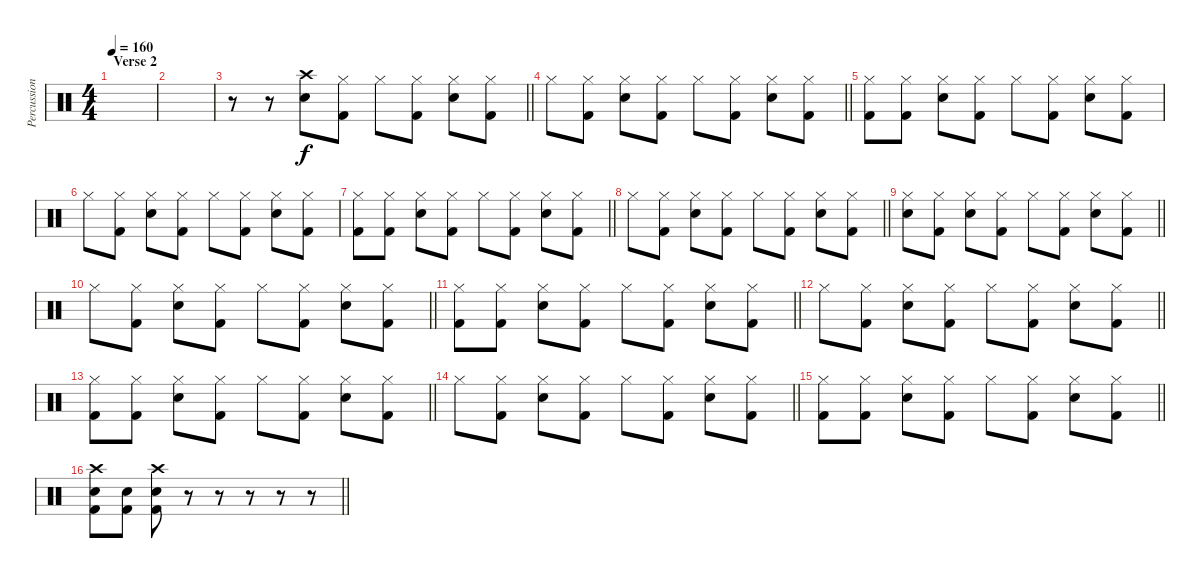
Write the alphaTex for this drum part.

\track ("Percussion" "Percussion") {instrument percussion}
\staff {score}
\articulation defaults
\ts (4 4)
\section ("" "Verse 2")
\tempo 160
\clef neutral
\ks c
|
|
\barLineRight lightlight
r.8 r.8 ("Crash high (hit)" "Electric Snare (hit)").8 ("Hi-Hat (closed)" "Kick (hit) 2").8 "Hi-Hat (closed)".8 ("Hi-Hat (closed)" "Kick (hit) 2").8 ("Hi-Hat (closed)" "Electric Snare (hit)").8 ("Hi-Hat (closed)" "Kick (hit) 2").8 |
\barLineRight lightlight "Hi-Hat (closed)".8
("Hi-Hat (closed)" "Kick (hit) 2").8 ("Hi-Hat (closed)" "Electric Snare (hit)").8 ("Hi-Hat (closed)" "Kick (hit) 2").8 "Hi-Hat (closed)".8 ("Hi-Hat (closed)" "Kick (hit) 2").8 ("Hi-Hat (closed)" "Electric Snare (hit)").8 ("Hi-Hat (closed)" "Kick (hit) 2").8 |
("Hi-Hat (closed)" "Kick (hit) 2").8 ("Hi-Hat (closed)" "Kick (hit) 2").8 ("Hi-Hat (closed)" "Electric Snare (hit)").8 ("Hi-Hat (closed)" "Kick (hit) 2").8 "Hi-Hat (closed)".8 ("Hi-Hat (closed)" "Kick (hit) 2").8 ("Hi-Hat (closed)" "Electric Snare (hit)").8 ("Hi-Hat (closed)" "Kick (hit) 2").8 |
"Hi-Hat (closed)".8 ("Hi-Hat (closed)" "Kick (hit) 2").8 ("Hi-Hat (closed)" "Electric Snare (hit)").8 ("Hi-Hat (closed)" "Kick (hit) 2").8 "Hi-Hat (closed)".8 ("Hi-Hat (closed)" "Kick (hit) 2").8 ("Hi-Hat (closed)" "Electric Snare (hit)").8 ("Hi-Hat (closed)" "Kick (hit) 2").8 |
\barLineRight lightlight
("Hi-Hat (closed)" "Kick (hit) 2").8 ("Hi-Hat (closed)" "Kick (hit) 2").8 ("Hi-Hat (closed)" "Electric Snare (hit)").8 ("Hi-Hat (closed)" "Kick (hit) 2").8 "Hi-Hat (closed)".8 ("Hi-Hat (closed)" "Kick (hit) 2").8 ("Hi-Hat (closed)" "Electric Snare (hit)").8 ("Hi-Hat (closed)" "Kick (hit) 2").8 |
\barLineRight lightlight "Hi-Hat (closed)".8
("Hi-Hat (closed)" "Kick (hit) 2").8 ("Hi-Hat (closed)" "Electric Snare (hit)").8 ("Hi-Hat (closed)" "Kick (hit) 2").8 "Hi-Hat (closed)".8 ("Hi-Hat (closed)" "Kick (hit) 2").8 ("Hi-Hat (closed)" "Electric Snare (hit)").8 ("Hi-Hat (closed)" "Kick (hit) 2").8 |
\barLineRight lightlight
("Hi-Hat (closed)" "Electric Snare (hit)").8 ("Hi-Hat (closed)" "Kick (hit) 2").8 ("Hi-Hat (closed)" "Electric Snare (hit)").8 ("Hi-Hat (closed)" "Kick (hit) 2").8 "Hi-Hat (closed)".8 ("Hi-Hat (closed)" "Kick (hit) 2").8 ("Hi-Hat (closed)" "Electric Snare (hit)").8 ("Hi-Hat (closed)" "Kick (hit) 2").8 |
\barLineRight lightlight "Hi-Hat (closed)".8
("Hi-Hat (closed)" "Kick (hit) 2").8 ("Hi-Hat (closed)" "Electric Snare (hit)").8 ("Hi-Hat (closed)" "Kick (hit) 2").8 "Hi-Hat (closed)".8 ("Hi-Hat (closed)" "Kick (hit) 2").8 ("Hi-Hat (closed)" "Electric Snare (hit)").8 ("Hi-Hat (closed)" "Kick (hit) 2").8 |
\barLineRight lightlight
("Hi-Hat (closed)" "Kick (hit) 2").8 ("Hi-Hat (closed)" "Kick (hit) 2").8 ("Hi-Hat (closed)" "Electric Snare (hit)").8 ("Hi-Hat (closed)" "Kick (hit) 2").8 "Hi-Hat (closed)".8 ("Hi-Hat (closed)" "Kick (hit) 2").8 ("Hi-Hat (closed)" "Electric Snare (hit)").8 ("Hi-Hat (closed)" "Kick (hit) 2").8 |
\barLineRight lightlight "Hi-Hat (closed)".8
("Hi-Hat (closed)" "Kick (hit) 2").8 ("Hi-Hat (closed)" "Electric Snare (hit)").8 ("Hi-Hat (closed)" "Kick (hit) 2").8 "Hi-Hat (closed)".8 ("Hi-Hat (closed)" "Kick (hit) 2").8 ("Hi-Hat (closed)" "Electric Snare (hit)").8 ("Hi-Hat (closed)" "Kick (hit) 2").8 |
\barLineRight lightlight
("Hi-Hat (closed)" "Kick (hit) 2").8 ("Hi-Hat (closed)" "Kick (hit) 2").8 ("Hi-Hat (closed)" "Electric Snare (hit)").8 ("Hi-Hat (closed)" "Kick (hit) 2").8 "Hi-Hat (closed)".8 ("Hi-Hat (closed)" "Kick (hit) 2").8 ("Hi-Hat (closed)" "Electric Snare (hit)").8 ("Hi-Hat (closed)" "Kick (hit) 2").8 |
\barLineRight lightlight "Hi-Hat (closed)".8
("Hi-Hat (closed)" "Kick (hit) 2").8 ("Hi-Hat (closed)" "Electric Snare (hit)").8 ("Hi-Hat (closed)" "Kick (hit) 2").8 "Hi-Hat (closed)".8 ("Hi-Hat (closed)" "Kick (hit) 2").8 ("Hi-Hat (closed)" "Electric Snare (hit)").8 ("Hi-Hat (closed)" "Kick (hit) 2").8 |
\barLineRight lightlight
("Hi-Hat (closed)" "Kick (hit) 2").8 ("Hi-Hat (closed)" "Kick (hit) 2").8 ("Hi-Hat (closed)" "Electric Snare (hit)").8 ("Hi-Hat (closed)" "Kick (hit) 2").8 "Hi-Hat (closed)".8 ("Hi-Hat (closed)" "Kick (hit) 2").8 ("Hi-Hat (closed)" "Electric Snare (hit)").8 ("Hi-Hat (closed)" "Kick (hit) 2").8 |
\barLineRight lightlight
("Crash high (hit)" "Electric Snare (hit)" "Kick (hit) 2").8 ("Electric Snare (hit)" "Kick (hit) 2").8 ("Crash high (hit)" "Electric Snare (hit)" "Kick (hit) 2").8 r.8 r.8 r.8 r.8 r.8
